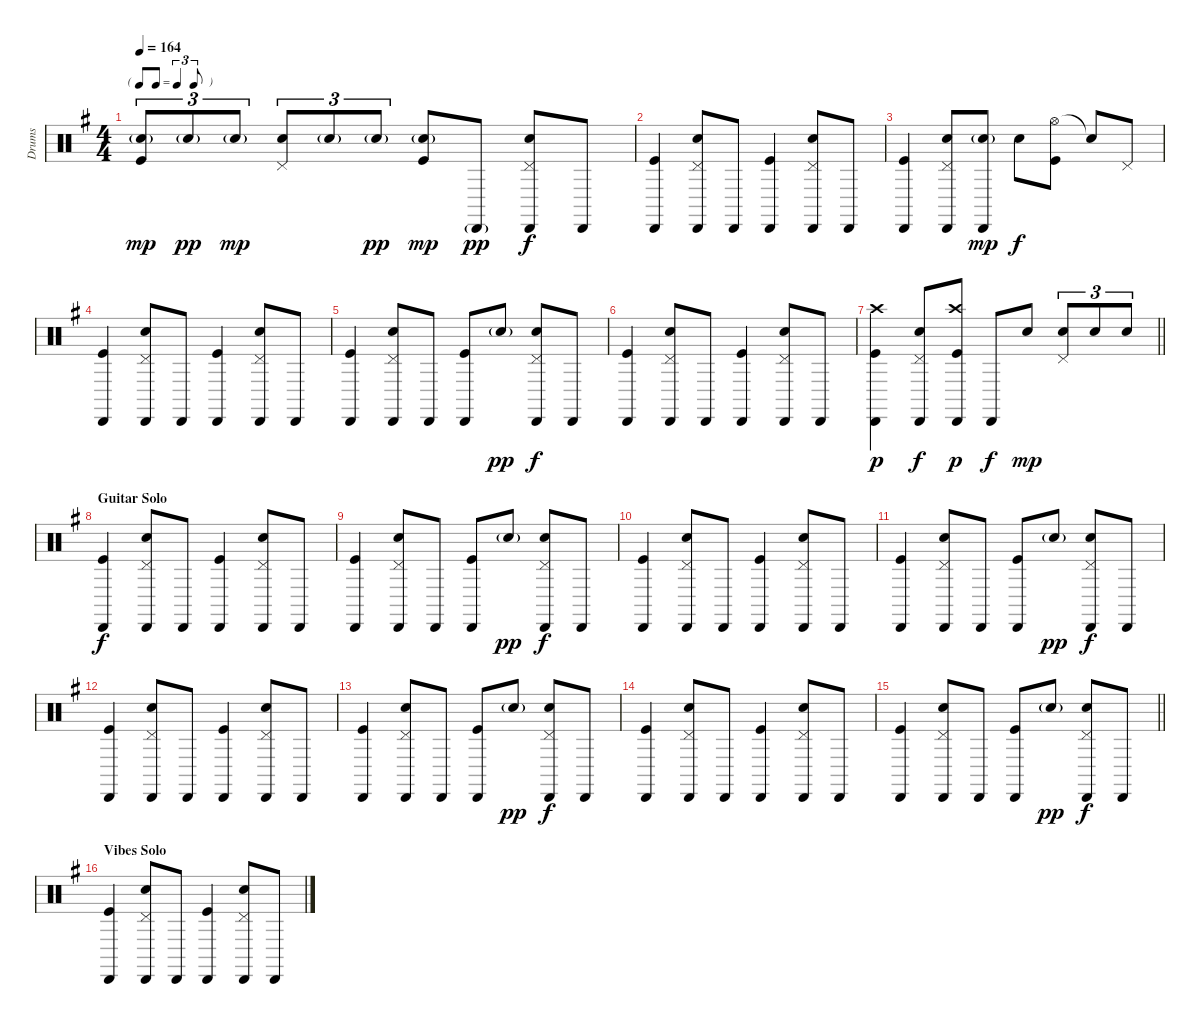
\track ("Drums" "Drums") {instrument percussion}
\staff {score}
\articulation defaults
\ts (4 4)
\tf triplet8th
\tempo 164
\clef neutral
\ks g
("Snare (hit) 2"{g} "Kick (hit)").8{tu (3 2) dy mp} "Snare (hit) 2"{g}.8{tu (3 2) dy pp} "Snare (hit) 2"{g}.8{tu (3 2) dy mp} ("Pedal Hi-Hat (hit)" "Snare (hit) 2").8{tu (3 2)} "Snare (hit) 2"{g}.8{tu (3 2)} "Snare (hit) 2"{g}.8{tu (3 2) dy pp} ("Snare (hit) 2"{g} "Kick (hit)").8{dy mp} "Cabasa (hit)"{g}.8{dy pp} ("Pedal Hi-Hat (hit)" "Cabasa (hit)" "Snare (hit) 2").8{dy f} "Cabasa (hit)".8 |
("Cabasa (hit)" "Kick (hit)").4 ("Pedal Hi-Hat (hit)" "Cabasa (hit)" "Snare (hit) 2").8 "Cabasa (hit)".8 ("Cabasa (hit)" "Kick (hit)").4 ("Pedal Hi-Hat (hit)" "Cabasa (hit)" "Snare (hit) 2").8 "Cabasa (hit)".8 |
("Cabasa (hit)" "Kick (hit)").4 ("Pedal Hi-Hat (hit)" "Cabasa (hit)" "Snare (hit) 2").8 ("Cabasa (hit)" "Snare (hit) 2"{g}).8{dy mp} "Snare (hit) 2".8{dy f} ("Hi-Hat (open)" "Kick (hit)").8 "Snare (hit)"{t}.8 "Pedal Hi-Hat (hit)".8 |
("Cabasa (hit)" "Kick (hit)").4 ("Pedal Hi-Hat (hit)" "Cabasa (hit)" "Snare (hit) 2").8 "Cabasa (hit)".8 ("Cabasa (hit)" "Kick (hit)").4 ("Pedal Hi-Hat (hit)" "Cabasa (hit)" "Snare (hit) 2").8 "Cabasa (hit)".8 |
("Cabasa (hit)" "Kick (hit)").4 ("Pedal Hi-Hat (hit)" "Cabasa (hit)" "Snare (hit) 2").8 "Cabasa (hit)".8 ("Cabasa (hit)" "Kick (hit)").8 "Snare (hit) 2"{g}.8{dy pp} ("Pedal Hi-Hat (hit)" "Cabasa (hit)" "Snare (hit) 2").8{dy f} "Cabasa (hit)".8 |
("Cabasa (hit)" "Kick (hit)").4 ("Pedal Hi-Hat (hit)" "Cabasa (hit)" "Snare (hit) 2").8 "Cabasa (hit)".8 ("Cabasa (hit)" "Kick (hit)").4 ("Pedal Hi-Hat (hit)" "Cabasa (hit)" "Snare (hit) 2").8 "Cabasa (hit)".8 |
\barLineRight lightlight
("Crash high (hit)" "Cabasa (hit)" "Kick (hit)").4{dy p} ("Pedal Hi-Hat (hit)" "Cabasa (hit)" "Snare (hit) 2").8{dy f} ("Crash high (hit)" "Cabasa (hit)" "Kick (hit)").8{dy p} "Cabasa (hit)".8{dy f} "Snare (hit) 2".8{dy mp} ("Pedal Hi-Hat (hit)" "Snare (hit) 2").8{tu (3 2)} "Snare (hit) 2".8{tu (3 2)} "Snare (hit) 2".8{tu (3 2)} |
\section ("" "Guitar Solo")
("Cabasa (hit)" "Kick (hit)").4{dy f} ("Pedal Hi-Hat (hit)" "Cabasa (hit)" "Snare (hit) 2").8 "Cabasa (hit)".8 ("Cabasa (hit)" "Kick (hit)").4 ("Pedal Hi-Hat (hit)" "Cabasa (hit)" "Snare (hit) 2").8 "Cabasa (hit)".8 |
("Cabasa (hit)" "Kick (hit)").4 ("Pedal Hi-Hat (hit)" "Cabasa (hit)" "Snare (hit) 2").8 "Cabasa (hit)".8 ("Cabasa (hit)" "Kick (hit)").8 "Snare (hit) 2"{g}.8{dy pp} ("Pedal Hi-Hat (hit)" "Cabasa (hit)" "Snare (hit) 2").8{dy f} "Cabasa (hit)".8 |
("Cabasa (hit)" "Kick (hit)").4 ("Pedal Hi-Hat (hit)" "Cabasa (hit)" "Snare (hit) 2").8 "Cabasa (hit)".8 ("Cabasa (hit)" "Kick (hit)").4 ("Pedal Hi-Hat (hit)" "Cabasa (hit)" "Snare (hit) 2").8 "Cabasa (hit)".8 |
("Cabasa (hit)" "Kick (hit)").4 ("Pedal Hi-Hat (hit)" "Cabasa (hit)" "Snare (hit) 2").8 "Cabasa (hit)".8 ("Cabasa (hit)" "Kick (hit)").8 "Snare (hit) 2"{g}.8{dy pp} ("Pedal Hi-Hat (hit)" "Cabasa (hit)" "Snare (hit) 2").8{dy f} "Cabasa (hit)".8 |
("Cabasa (hit)" "Kick (hit)").4 ("Pedal Hi-Hat (hit)" "Cabasa (hit)" "Snare (hit) 2").8 "Cabasa (hit)".8 ("Cabasa (hit)" "Kick (hit)").4 ("Pedal Hi-Hat (hit)" "Cabasa (hit)" "Snare (hit) 2").8 "Cabasa (hit)".8 |
("Cabasa (hit)" "Kick (hit)").4 ("Pedal Hi-Hat (hit)" "Cabasa (hit)" "Snare (hit) 2").8 "Cabasa (hit)".8 ("Cabasa (hit)" "Kick (hit)").8 "Snare (hit) 2"{g}.8{dy pp} ("Pedal Hi-Hat (hit)" "Cabasa (hit)" "Snare (hit) 2").8{dy f} "Cabasa (hit)".8 |
("Cabasa (hit)" "Kick (hit)").4 ("Pedal Hi-Hat (hit)" "Cabasa (hit)" "Snare (hit) 2").8 "Cabasa (hit)".8 ("Cabasa (hit)" "Kick (hit)").4 ("Pedal Hi-Hat (hit)" "Cabasa (hit)" "Snare (hit) 2").8 "Cabasa (hit)".8 |
\barLineRight lightlight
("Cabasa (hit)" "Kick (hit)").4 ("Pedal Hi-Hat (hit)" "Cabasa (hit)" "Snare (hit) 2").8 "Cabasa (hit)".8 ("Cabasa (hit)" "Kick (hit)").8 "Snare (hit) 2"{g}.8{dy pp} ("Pedal Hi-Hat (hit)" "Cabasa (hit)" "Snare (hit) 2").8{dy f} "Cabasa (hit)".8 |
\section ("" "Vibes Solo")
("Cabasa (hit)" "Kick (hit)").4 ("Pedal Hi-Hat (hit)" "Cabasa (hit)" "Snare (hit) 2").8 "Cabasa (hit)".8 ("Cabasa (hit)" "Kick (hit)").4 ("Pedal Hi-Hat (hit)" "Cabasa (hit)" "Snare (hit) 2").8 "Cabasa (hit)".8
